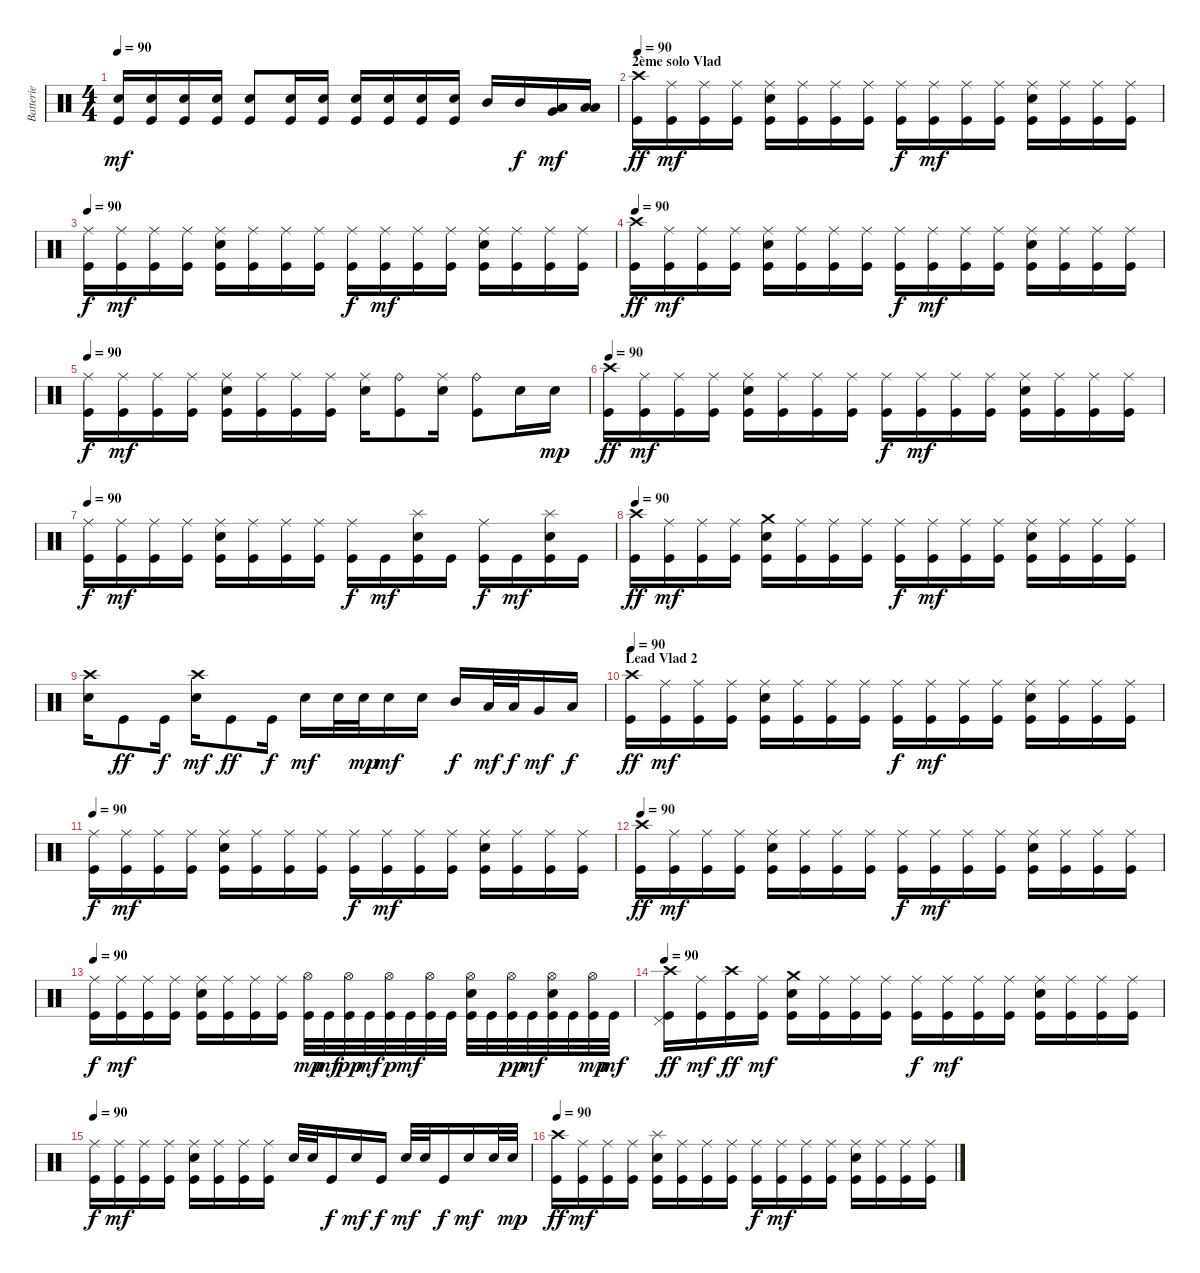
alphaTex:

\track ("Batterie" "Batterie") {instrument percussion}
\staff {score}
\articulation defaults
\ts (4 4)
\tempo 90
\clef neutral
\ks c
("Electric Snare (hit)" "Kick (hit)").16{dy mf} ("Electric Snare (hit)" "Kick (hit)").16 ("Electric Snare (hit)" "Kick (hit)").16 ("Electric Snare (hit)" "Kick (hit)").16 ("Electric Snare (hit)" "Kick (hit)").8 ("Electric Snare (hit)" "Kick (hit)").16 ("Electric Snare (hit)" "Kick (hit)").16 ("Electric Snare (hit)" "Kick (hit)").16 ("Electric Snare (hit)" "Kick (hit)").16 ("Electric Snare (hit)" "Kick (hit)").16 ("Electric Snare (hit)" "Kick (hit)").16 "Mid Tom (hit)".16 "Mid Tom (hit)".16{dy f} ("Low Tom (hit)" "Very Low Tom (hit)").16{bd 120 dy mf} ("Low Tom (hit)" "Low Floor Tom (hit)").16{bd 120} |
\section ("" "2ème solo Vlad")
\tempo 90
("Crash high (hit)" "Kick (hit)").16{dy ff} ("Ride (middle)" "Kick (hit)").16{dy mf} ("Ride (middle)" "Kick (hit)").16 ("Ride (middle)" "Kick (hit)").16 ("Ride (middle)" "Electric Snare (hit)" "Kick (hit)").16 ("Ride (middle)" "Kick (hit)").16 ("Ride (middle)" "Kick (hit)").16 ("Ride (middle)" "Kick (hit)").16 ("Ride (middle)" "Kick (hit)").16{dy f} ("Ride (middle)" "Kick (hit)").16{dy mf} ("Ride (middle)" "Kick (hit)").16 ("Ride (middle)" "Kick (hit)").16 ("Ride (middle)" "Electric Snare (hit)" "Kick (hit)").16 ("Ride (middle)" "Kick (hit)").16 ("Ride (middle)" "Kick (hit)").16 ("Ride (middle)" "Kick (hit)").16 |
\tempo 90
("Ride (middle)" "Kick (hit)").16{dy f} ("Ride (middle)" "Kick (hit)").16{dy mf} ("Ride (middle)" "Kick (hit)").16 ("Ride (middle)" "Kick (hit)").16 ("Ride (middle)" "Electric Snare (hit)" "Kick (hit)").16 ("Ride (middle)" "Kick (hit)").16 ("Ride (middle)" "Kick (hit)").16 ("Ride (middle)" "Kick (hit)").16 ("Ride (middle)" "Kick (hit)").16{dy f} ("Ride (middle)" "Kick (hit)").16{dy mf} ("Ride (middle)" "Kick (hit)").16 ("Ride (middle)" "Kick (hit)").16 ("Ride (middle)" "Electric Snare (hit)" "Kick (hit)").16 ("Ride (middle)" "Kick (hit)").16 ("Ride (middle)" "Kick (hit)").16 ("Ride (middle)" "Kick (hit)").16 |
\tempo 90
("Crash high (hit)" "Kick (hit)").16{dy ff} ("Ride (middle)" "Kick (hit)").16{dy mf} ("Ride (middle)" "Kick (hit)").16 ("Ride (middle)" "Kick (hit)").16 ("Ride (middle)" "Electric Snare (hit)" "Kick (hit)").16 ("Ride (middle)" "Kick (hit)").16 ("Ride (middle)" "Kick (hit)").16 ("Ride (middle)" "Kick (hit)").16 ("Ride (middle)" "Kick (hit)").16{dy f} ("Ride (middle)" "Kick (hit)").16{dy mf} ("Ride (middle)" "Kick (hit)").16 ("Ride (middle)" "Kick (hit)").16 ("Ride (middle)" "Electric Snare (hit)" "Kick (hit)").16 ("Ride (middle)" "Kick (hit)").16 ("Ride (middle)" "Kick (hit)").16 ("Ride (middle)" "Kick (hit)").16 |
\tempo 90
("Ride (middle)" "Kick (hit)").16{dy f} ("Ride (middle)" "Kick (hit)").16{dy mf} ("Ride (middle)" "Kick (hit)").16 ("Ride (middle)" "Kick (hit)").16 ("Ride (middle)" "Electric Snare (hit)" "Kick (hit)").16 ("Ride (middle)" "Kick (hit)").16 ("Ride (middle)" "Kick (hit)").16 ("Ride (middle)" "Kick (hit)").16 ("Ride (middle)" "Electric Snare (hit)").16 ("Ride (bell)" "Kick (hit)").8 ("Ride (middle)" "Electric Snare (hit)").16 ("Ride (bell)" "Kick (hit)").8 "Electric Snare (hit)".16 "Electric Snare (hit)".16{dy mp} |
\tempo 90
("Crash high (hit)" "Kick (hit)").16{dy ff} ("Ride (middle)" "Kick (hit)").16{dy mf} ("Ride (middle)" "Kick (hit)").16 ("Ride (middle)" "Kick (hit)").16 ("Ride (middle)" "Electric Snare (hit)" "Kick (hit)").16 ("Ride (middle)" "Kick (hit)").16 ("Ride (middle)" "Kick (hit)").16 ("Ride (middle)" "Kick (hit)").16 ("Ride (middle)" "Kick (hit)").16{dy f} ("Ride (middle)" "Kick (hit)").16{dy mf} ("Ride (middle)" "Kick (hit)").16 ("Ride (middle)" "Kick (hit)").16 ("Ride (middle)" "Electric Snare (hit)" "Kick (hit)").16 ("Ride (middle)" "Kick (hit)").16 ("Ride (middle)" "Kick (hit)").16 ("Ride (middle)" "Kick (hit)").16 |
\tempo 90
("Ride (middle)" "Kick (hit)").16{dy f} ("Ride (middle)" "Kick (hit)").16{dy mf} ("Ride (middle)" "Kick (hit)").16 ("Ride (middle)" "Kick (hit)").16 ("Ride (middle)" "Electric Snare (hit)" "Kick (hit)").16 ("Ride (middle)" "Kick (hit)").16 ("Ride (middle)" "Kick (hit)").16 ("Ride (middle)" "Kick (hit)").16 ("Ride (middle)" "Kick (hit)").16{dy f} "Kick (hit)".16{dy mf} ("Splash (hit)" "Electric Snare (hit)" "Kick (hit)").16 "Kick (hit)".16 ("Ride (middle)" "Kick (hit)").16{dy f} "Kick (hit)".16{dy mf} ("Splash (hit)" "Electric Snare (hit)" "Kick (hit)").16 "Kick (hit)".16 |
\tempo 90
("Crash high (hit)" "Kick (hit)").16{dy ff} ("Ride (middle)" "Kick (hit)").16{dy mf} ("Ride (middle)" "Kick (hit)").16 ("Ride (middle)" "Kick (hit)").16 ("Crash medium (hit)" "Electric Snare (hit)" "Kick (hit)").16 ("Ride (middle)" "Kick (hit)").16 ("Ride (middle)" "Kick (hit)").16 ("Ride (middle)" "Kick (hit)").16 ("Ride (middle)" "Kick (hit)").16{dy f} ("Ride (middle)" "Kick (hit)").16{dy mf} ("Ride (middle)" "Kick (hit)").16 ("Ride (middle)" "Kick (hit)").16 ("Ride (middle)" "Electric Snare (hit)" "Kick (hit)").16 ("Ride (middle)" "Kick (hit)").16 ("Ride (middle)" "Kick (hit)").16 ("Ride (middle)" "Kick (hit)").16 |
("Crash high (hit)" "Electric Snare (hit)").16 "Kick (hit)".8{dy ff} "Kick (hit)".16{dy f} ("Crash high (hit)" "Electric Snare (hit)").16{dy mf} "Kick (hit)".8{dy ff} "Kick (hit)".16{dy f} "Electric Snare (hit)".16{dy mf} "Electric Snare (hit)".32 "Electric Snare (hit)".32{dy mp} "Electric Snare (hit)".16{dy mf} "Electric Snare (hit)".16 "Mid Tom (hit)".16{dy f} "Low Tom (hit)".32{dy mf} "Low Tom (hit)".32{dy f} "Very Low Tom (hit)".16{dy mf} "Low Floor Tom (hit)".16{dy f} |
\section ("" "Lead Vlad 2")
\tempo 90
("Crash high (hit)" "Kick (hit)").16{dy ff} ("Ride (middle)" "Kick (hit)").16{dy mf} ("Ride (middle)" "Kick (hit)").16 ("Ride (middle)" "Kick (hit)").16 ("Ride (middle)" "Electric Snare (hit)" "Kick (hit)").16 ("Ride (middle)" "Kick (hit)").16 ("Ride (middle)" "Kick (hit)").16 ("Ride (middle)" "Kick (hit)").16 ("Ride (middle)" "Kick (hit)").16{dy f} ("Ride (middle)" "Kick (hit)").16{dy mf} ("Ride (middle)" "Kick (hit)").16 ("Ride (middle)" "Kick (hit)").16 ("Ride (middle)" "Electric Snare (hit)" "Kick (hit)").16 ("Ride (middle)" "Kick (hit)").16 ("Ride (middle)" "Kick (hit)").16 ("Ride (middle)" "Kick (hit)").16 |
\tempo 90
("Ride (middle)" "Kick (hit)").16{dy f} ("Ride (middle)" "Kick (hit)").16{dy mf} ("Ride (middle)" "Kick (hit)").16 ("Ride (middle)" "Kick (hit)").16 ("Ride (middle)" "Electric Snare (hit)" "Kick (hit)").16 ("Ride (middle)" "Kick (hit)").16 ("Ride (middle)" "Kick (hit)").16 ("Ride (middle)" "Kick (hit)").16 ("Ride (middle)" "Kick (hit)").16{dy f} ("Ride (middle)" "Kick (hit)").16{dy mf} ("Ride (middle)" "Kick (hit)").16 ("Ride (middle)" "Kick (hit)").16 ("Ride (middle)" "Electric Snare (hit)" "Kick (hit)").16 ("Ride (middle)" "Kick (hit)").16 ("Ride (middle)" "Kick (hit)").16 ("Ride (middle)" "Kick (hit)").16 |
\tempo 90
("Crash high (hit)" "Kick (hit)").16{dy ff} ("Ride (middle)" "Kick (hit)").16{dy mf} ("Ride (middle)" "Kick (hit)").16 ("Ride (middle)" "Kick (hit)").16 ("Ride (middle)" "Electric Snare (hit)" "Kick (hit)").16 ("Ride (middle)" "Kick (hit)").16 ("Ride (middle)" "Kick (hit)").16 ("Ride (middle)" "Kick (hit)").16 ("Ride (middle)" "Kick (hit)").16{dy f} ("Ride (middle)" "Kick (hit)").16{dy mf} ("Ride (middle)" "Kick (hit)").16 ("Ride (middle)" "Kick (hit)").16 ("Ride (middle)" "Electric Snare (hit)" "Kick (hit)").16 ("Ride (middle)" "Kick (hit)").16 ("Ride (middle)" "Kick (hit)").16 ("Ride (middle)" "Kick (hit)").16 |
\tempo 90
("Ride (middle)" "Kick (hit)").16{dy f} ("Ride (middle)" "Kick (hit)").16{dy mf} ("Ride (middle)" "Kick (hit)").16 ("Ride (middle)" "Kick (hit)").16 ("Ride (middle)" "Electric Snare (hit)" "Kick (hit)").16 ("Ride (middle)" "Kick (hit)").16 ("Ride (middle)" "Kick (hit)").16 ("Ride (middle)" "Kick (hit)").16 ("Hi-Hat (open)" "Kick (hit)").32{dy mp} "Kick (hit)".32{dy mf} ("Hi-Hat (open)" "Kick (hit)").32{dy pp} "Kick (hit)".32{dy mf} ("Hi-Hat (open)" "Kick (hit)").32{dy p} "Kick (hit)".32{dy mf} ("Hi-Hat (open)" "Kick (hit)").32 "Kick (hit)".32 ("Hi-Hat (open)" "Electric Snare (hit)" "Kick (hit)").32 "Kick (hit)".32 ("Hi-Hat (open)" "Kick (hit)").32{dy pp} "Kick (hit)".32{dy mf} ("Hi-Hat (open)" "Electric Snare (hit)" "Kick (hit)").32 "Kick (hit)".32 ("Hi-Hat (open)" "Kick (hit)").32{dy mp} "Kick (hit)".32{dy mf} |
\tempo 90
("Crash high (hit)" "Pedal Hi-Hat (hit)" "Kick (hit)").16{dy ff} ("Ride (middle)" "Kick (hit)").16{dy mf} ("Crash high (hit)" "Kick (hit)").16{dy ff} ("Ride (middle)" "Kick (hit)").16{dy mf} ("Crash medium (hit)" "Electric Snare (hit)" "Kick (hit)").16 ("Ride (middle)" "Kick (hit)").16 ("Ride (middle)" "Kick (hit)").16 ("Ride (middle)" "Kick (hit)").16 ("Ride (middle)" "Kick (hit)").16{dy f} ("Ride (middle)" "Kick (hit)").16{dy mf} ("Ride (middle)" "Kick (hit)").16 ("Ride (middle)" "Kick (hit)").16 ("Ride (middle)" "Electric Snare (hit)" "Kick (hit)").16 ("Ride (middle)" "Kick (hit)").16 ("Ride (middle)" "Kick (hit)").16 ("Ride (middle)" "Kick (hit)").16 |
\tempo 90
("Ride (middle)" "Kick (hit)").16{dy f} ("Ride (middle)" "Kick (hit)").16{dy mf} ("Ride (middle)" "Kick (hit)").16 ("Ride (middle)" "Kick (hit)").16 ("Ride (middle)" "Electric Snare (hit)" "Kick (hit)").16 ("Ride (middle)" "Kick (hit)").16 ("Ride (middle)" "Kick (hit)").16 ("Ride (middle)" "Kick (hit)").16 "Electric Snare (hit)".32 "Electric Snare (hit)".32 "Kick (hit)".16{dy f} "Electric Snare (hit)".16{dy mf} "Kick (hit)".16{dy f} "Electric Snare (hit)".32{dy mf} "Electric Snare (hit)".32 "Kick (hit)".16{dy f} "Electric Snare (hit)".16{dy mf} "Electric Snare (hit)".32 "Electric Snare (hit)".32{dy mp} |
\tempo 90
("Crash high (hit)" "Kick (hit)").16{dy ff} ("Ride (middle)" "Kick (hit)").16{dy mf} ("Ride (middle)" "Kick (hit)").16 ("Ride (middle)" "Kick (hit)").16 ("Splash (hit)" "Electric Snare (hit)" "Kick (hit)").16 ("Ride (middle)" "Kick (hit)").16 ("Ride (middle)" "Kick (hit)").16 ("Ride (middle)" "Kick (hit)").16 ("Ride (middle)" "Kick (hit)").16{dy f} ("Ride (middle)" "Kick (hit)").16{dy mf} ("Ride (middle)" "Kick (hit)").16 ("Ride (middle)" "Kick (hit)").16 ("Ride (middle)" "Electric Snare (hit)" "Kick (hit)").16 ("Ride (middle)" "Kick (hit)").16 ("Ride (middle)" "Kick (hit)").16 ("Ride (middle)" "Kick (hit)").16
